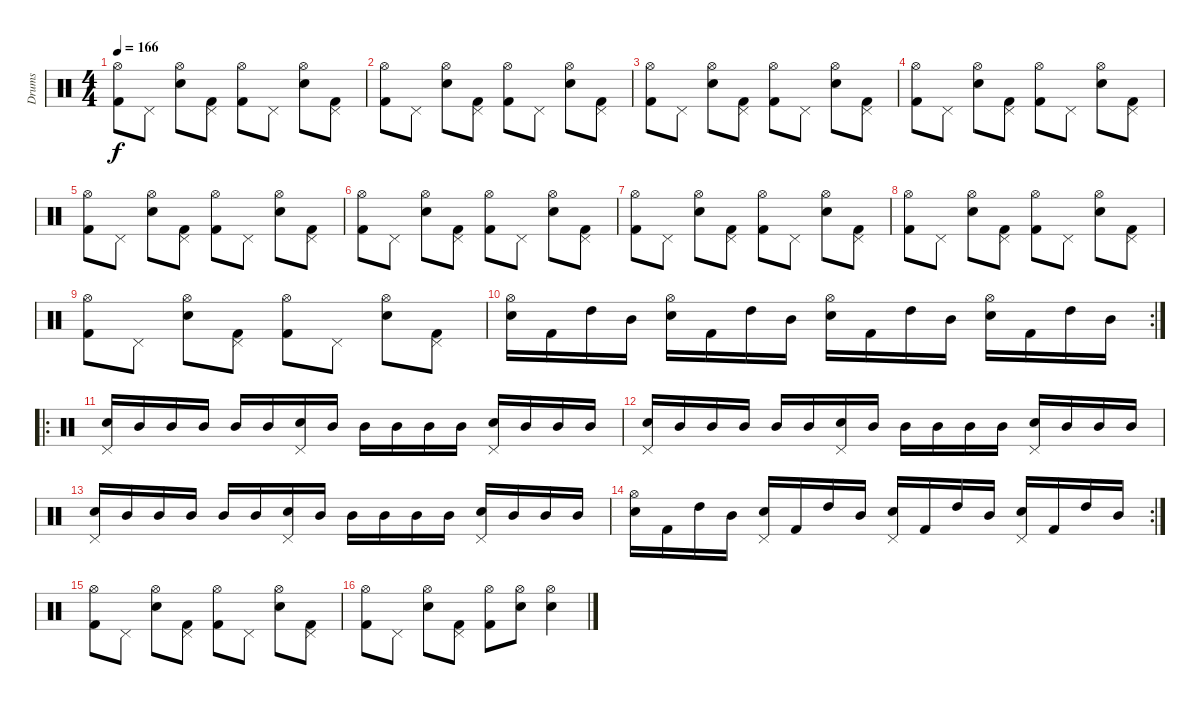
\track ("Drums" "Drums") {instrument percussion}
\staff {score}
\articulation defaults
\ts (4 4)
\tempo 166
\clef neutral
\ks c
("Kick (hit) 2" "Hi-Hat (open)").8{dy f} "Pedal Hi-Hat (hit)".8 ("Snare (hit) 2" "Hi-Hat (open)").8 ("Kick (hit) 2" "Pedal Hi-Hat (hit)").8 ("Kick (hit) 2" "Hi-Hat (open)").8 "Pedal Hi-Hat (hit)".8 ("Snare (hit) 2" "Hi-Hat (open)").8 ("Kick (hit) 2" "Pedal Hi-Hat (hit)").8 |
("Kick (hit) 2" "Hi-Hat (open)").8 "Pedal Hi-Hat (hit)".8 ("Snare (hit) 2" "Hi-Hat (open)").8 ("Kick (hit) 2" "Pedal Hi-Hat (hit)").8 ("Kick (hit) 2" "Hi-Hat (open)").8 "Pedal Hi-Hat (hit)".8 ("Snare (hit) 2" "Hi-Hat (open)").8 ("Kick (hit) 2" "Pedal Hi-Hat (hit)").8 |
("Kick (hit) 2" "Hi-Hat (open)").8 "Pedal Hi-Hat (hit)".8 ("Snare (hit) 2" "Hi-Hat (open)").8 ("Kick (hit) 2" "Pedal Hi-Hat (hit)").8 ("Kick (hit) 2" "Hi-Hat (open)").8 "Pedal Hi-Hat (hit)".8 ("Snare (hit) 2" "Hi-Hat (open)").8 ("Kick (hit) 2" "Pedal Hi-Hat (hit)").8 |
("Kick (hit) 2" "Hi-Hat (open)").8 "Pedal Hi-Hat (hit)".8 ("Snare (hit) 2" "Hi-Hat (open)").8 ("Kick (hit) 2" "Pedal Hi-Hat (hit)").8 ("Kick (hit) 2" "Hi-Hat (open)").8 "Pedal Hi-Hat (hit)".8 ("Snare (hit) 2" "Hi-Hat (open)").8 ("Kick (hit) 2" "Pedal Hi-Hat (hit)").8 |
("Kick (hit) 2" "Hi-Hat (open)").8 "Pedal Hi-Hat (hit)".8 ("Snare (hit) 2" "Hi-Hat (open)").8 ("Kick (hit) 2" "Pedal Hi-Hat (hit)").8 ("Kick (hit) 2" "Hi-Hat (open)").8 "Pedal Hi-Hat (hit)".8 ("Snare (hit) 2" "Hi-Hat (open)").8 ("Kick (hit) 2" "Pedal Hi-Hat (hit)").8 |
("Kick (hit) 2" "Hi-Hat (open)").8 "Pedal Hi-Hat (hit)".8 ("Snare (hit) 2" "Hi-Hat (open)").8 ("Kick (hit) 2" "Pedal Hi-Hat (hit)").8 ("Kick (hit) 2" "Hi-Hat (open)").8 "Pedal Hi-Hat (hit)".8 ("Snare (hit) 2" "Hi-Hat (open)").8 ("Kick (hit) 2" "Pedal Hi-Hat (hit)").8 |
("Kick (hit) 2" "Hi-Hat (open)").8 "Pedal Hi-Hat (hit)".8 ("Snare (hit) 2" "Hi-Hat (open)").8 ("Kick (hit) 2" "Pedal Hi-Hat (hit)").8 ("Kick (hit) 2" "Hi-Hat (open)").8 "Pedal Hi-Hat (hit)".8 ("Snare (hit) 2" "Hi-Hat (open)").8 ("Kick (hit) 2" "Pedal Hi-Hat (hit)").8 |
("Kick (hit) 2" "Hi-Hat (open)").8 "Pedal Hi-Hat (hit)".8 ("Snare (hit) 2" "Hi-Hat (open)").8 ("Kick (hit) 2" "Pedal Hi-Hat (hit)").8 ("Kick (hit) 2" "Hi-Hat (open)").8 "Pedal Hi-Hat (hit)".8 ("Snare (hit) 2" "Hi-Hat (open)").8 ("Kick (hit) 2" "Pedal Hi-Hat (hit)").8 |
("Kick (hit) 2" "Hi-Hat (open)").8 "Pedal Hi-Hat (hit)".8 ("Snare (hit) 2" "Hi-Hat (open)").8 ("Kick (hit) 2" "Pedal Hi-Hat (hit)").8 ("Kick (hit) 2" "Hi-Hat (open)").8 "Pedal Hi-Hat (hit)".8 ("Snare (hit) 2" "Hi-Hat (open)").8 ("Kick (hit) 2" "Pedal Hi-Hat (hit)").8 |
\rc 2
("Snare (hit) 2" "Hi-Hat (open)").16 "Kick (hit) 2".16 "High Tom (hit)".16 "Mid Tom (hit)".16 ("Snare (hit) 2" "Hi-Hat (open)").16 "Kick (hit) 2".16 "High Tom (hit)".16 "Mid Tom (hit)".16 ("Snare (hit) 2" "Hi-Hat (open)").16 "Kick (hit) 2".16 "High Tom (hit)".16 "Mid Tom (hit)".16 ("Snare (hit) 2" "Hi-Hat (open)").16 "Kick (hit) 2".16 "High Tom (hit)".16 "Mid Tom (hit)".16 |
\ro
("Snare (hit) 2" "Pedal Hi-Hat (hit)").16 "Mid Tom (hit)".16 "Mid Tom (hit)".16 "Mid Tom (hit)".16 "Mid Tom (hit)".16 "Mid Tom (hit)".16 ("Snare (hit) 2" "Pedal Hi-Hat (hit)").16 "Mid Tom (hit)".16 "Mid Tom (hit)".16 "Mid Tom (hit)".16 "Mid Tom (hit)".16 "Mid Tom (hit)".16 ("Snare (hit) 2" "Pedal Hi-Hat (hit)").16 "Mid Tom (hit)".16 "Mid Tom (hit)".16 "Mid Tom (hit)".16 |
("Snare (hit) 2" "Pedal Hi-Hat (hit)").16 "Mid Tom (hit)".16 "Mid Tom (hit)".16 "Mid Tom (hit)".16 "Mid Tom (hit)".16 "Mid Tom (hit)".16 ("Snare (hit) 2" "Pedal Hi-Hat (hit)").16 "Mid Tom (hit)".16 "Mid Tom (hit)".16 "Mid Tom (hit)".16 "Mid Tom (hit)".16 "Mid Tom (hit)".16 ("Snare (hit) 2" "Pedal Hi-Hat (hit)").16 "Mid Tom (hit)".16 "Mid Tom (hit)".16 "Mid Tom (hit)".16 |
("Snare (hit) 2" "Pedal Hi-Hat (hit)").16 "Mid Tom (hit)".16 "Mid Tom (hit)".16 "Mid Tom (hit)".16 "Mid Tom (hit)".16 "Mid Tom (hit)".16 ("Snare (hit) 2" "Pedal Hi-Hat (hit)").16 "Mid Tom (hit)".16 "Mid Tom (hit)".16 "Mid Tom (hit)".16 "Mid Tom (hit)".16 "Mid Tom (hit)".16 ("Snare (hit) 2" "Pedal Hi-Hat (hit)").16 "Mid Tom (hit)".16 "Mid Tom (hit)".16 "Mid Tom (hit)".16 |
\rc 2
("Snare (hit) 2" "Hi-Hat (open)").16 "Kick (hit) 2".16 "High Tom (hit)".16 "Mid Tom (hit)".16 ("Snare (hit) 2" "Pedal Hi-Hat (hit)").16 "Kick (hit) 2".16 "High Tom (hit)".16 "Mid Tom (hit)".16 ("Snare (hit) 2" "Pedal Hi-Hat (hit)").16 "Kick (hit) 2".16 "High Tom (hit)".16 "Mid Tom (hit)".16 ("Snare (hit) 2" "Pedal Hi-Hat (hit)").16 "Kick (hit) 2".16 "High Tom (hit)".16 "Mid Tom (hit)".16 |
("Kick (hit) 2" "Hi-Hat (open)").8 "Pedal Hi-Hat (hit)".8 ("Snare (hit) 2" "Hi-Hat (open)").8 ("Kick (hit) 2" "Pedal Hi-Hat (hit)").8 ("Kick (hit) 2" "Hi-Hat (open)").8 "Pedal Hi-Hat (hit)".8 ("Snare (hit) 2" "Hi-Hat (open)").8 ("Kick (hit) 2" "Pedal Hi-Hat (hit)").8 |
("Kick (hit) 2" "Hi-Hat (open)").8 "Pedal Hi-Hat (hit)".8 ("Snare (hit) 2" "Hi-Hat (open)").8 ("Kick (hit) 2" "Pedal Hi-Hat (hit)").8 ("Kick (hit) 2" "Hi-Hat (open)").8 ("Snare (hit) 2" "Hi-Hat (open)").8 ("Snare (hit) 2" "Hi-Hat (open)").4
